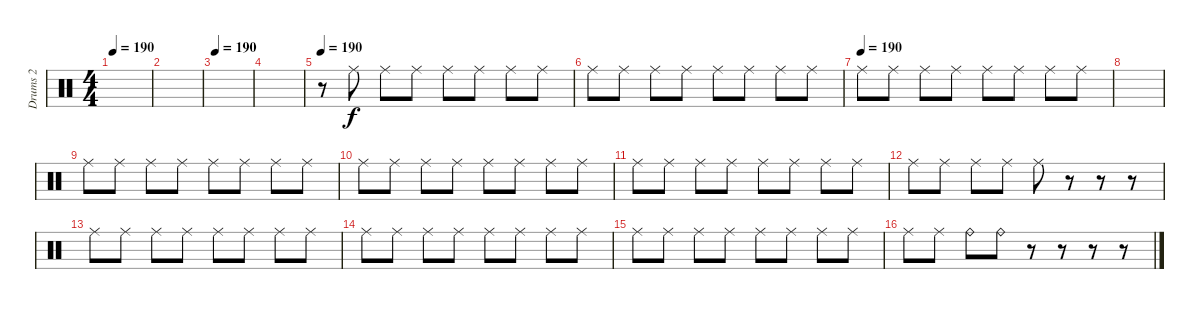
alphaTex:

\track ("Drums 2" "Drums 2") {instrument percussion}
\staff {score}
\articulation defaults
\ts (4 4)
\tempo 190
\clef neutral
\ks c
|
|
\tempo 190
|
|
\tempo 190
r.8 "Ride (middle)".8 "Ride (middle)".8 "Ride (middle)".8 "Ride (middle)".8 "Ride (middle)".8 "Ride (middle)".8 "Ride (middle)".8 |
"Ride (middle)".8 "Ride (middle)".8 "Ride (middle)".8 "Ride (middle)".8 "Ride (middle)".8 "Ride (middle)".8 "Ride (middle)".8 "Ride (middle)".8 |
\tempo (190)
"Ride (middle)".8 "Ride (middle)".8 "Ride (middle)".8 "Ride (middle)".8 "Ride (middle)".8 "Ride (middle)".8 "Ride (middle)".8 "Ride (middle)".8 |
|
"Ride (middle)".8 "Ride (middle)".8 "Ride (middle)".8 "Ride (middle)".8 "Ride (middle)".8 "Ride (middle)".8 "Ride (middle)".8 "Ride (middle)".8 |
"Ride (middle)".8 "Ride (middle)".8 "Ride (middle)".8 "Ride (middle)".8 "Ride (middle)".8 "Ride (middle)".8 "Ride (middle)".8 "Ride (middle)".8 |
"Ride (middle)".8 "Ride (middle)".8 "Ride (middle)".8 "Ride (middle)".8 "Ride (middle)".8 "Ride (middle)".8 "Ride (middle)".8 "Ride (middle)".8 |
"Ride (middle)".8 "Ride (middle)".8 "Ride (middle)".8 "Ride (middle)".8 "Ride (middle)".8 r.8 r.8 r.8 |
"Ride (middle)".8 "Ride (middle)".8 "Ride (middle)".8 "Ride (middle)".8 "Ride (middle)".8 "Ride (middle)".8 "Ride (middle)".8 "Ride (middle)".8 |
"Ride (middle)".8 "Ride (middle)".8 "Ride (middle)".8 "Ride (middle)".8 "Ride (middle)".8 "Ride (middle)".8 "Ride (middle)".8 "Ride (middle)".8 |
"Ride (middle)".8 "Ride (middle)".8 "Ride (middle)".8 "Ride (middle)".8 "Ride (middle)".8 "Ride (middle)".8 "Ride (middle)".8 "Ride (middle)".8 |
"Ride (middle)".8 "Ride (middle)".8 "Ride (bell)".8 "Ride (bell)".8 r.8 r.8 r.8 r.8
